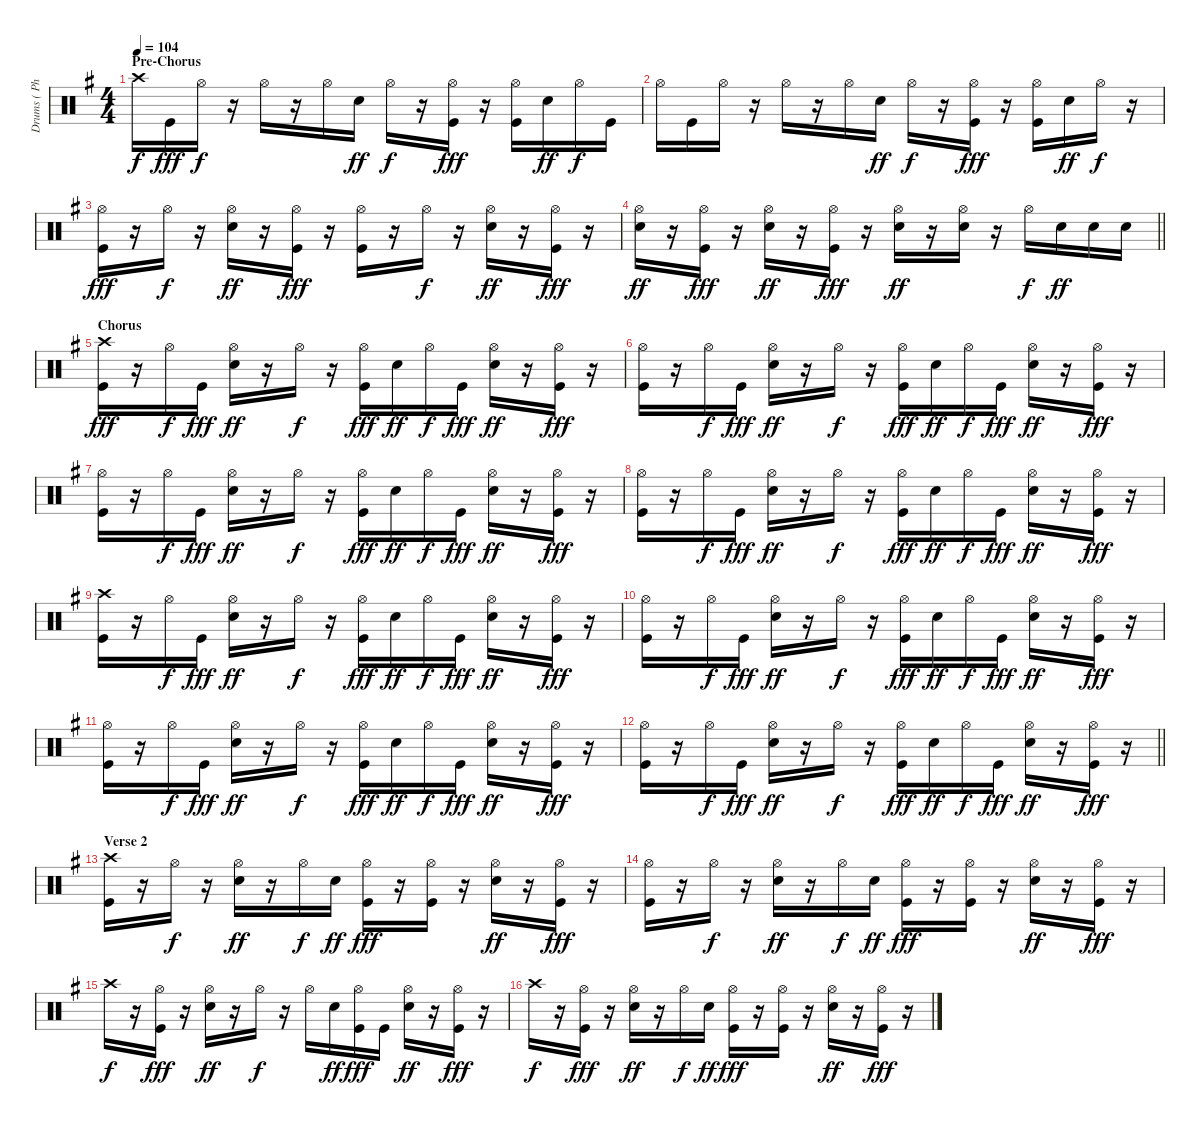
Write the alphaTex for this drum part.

\track ("Drums ( Phillip Selway )" "Drums ( Ph") {instrument percussion}
\staff {score}
\articulation defaults
\ts (4 4)
\section ("" "Pre-Chorus")
\tempo 104
\clef neutral
\ks eminor "Crash high (hit)".16{dy f} "Kick (hit)".16{dy fff} "Hi-Hat (open)".16{dy f}
r.16 "Hi-Hat (open)".16 r.16 "Hi-Hat (open)".16 "Electric Snare (hit)".16{dy ff} "Hi-Hat (open)".16{dy f} r.16 ("Hi-Hat (open)" "Kick (hit)").16{dy fff} r.16 ("Hi-Hat (open)" "Kick (hit)").16 "Electric Snare (hit)".16{dy ff} "Hi-Hat (open)".16{dy f} "Kick (hit)".16 |
"Hi-Hat (open)".16 "Kick (hit)".16 "Hi-Hat (open)".16 r.16 "Hi-Hat (open)".16 r.16 "Hi-Hat (open)".16 "Electric Snare (hit)".16{dy ff} "Hi-Hat (open)".16{dy f} r.16 ("Hi-Hat (open)" "Kick (hit)").16{dy fff} r.16 ("Hi-Hat (open)" "Kick (hit)").16 "Electric Snare (hit)".16{dy ff} "Hi-Hat (open)".16{dy f} r.16 |
("Hi-Hat (open)" "Kick (hit)").16{dy fff} r.16 "Hi-Hat (open)".16{dy f} r.16 ("Hi-Hat (open)" "Electric Snare (hit)").16{dy ff} r.16 ("Hi-Hat (open)" "Kick (hit)").16{dy fff} r.16 ("Hi-Hat (open)" "Kick (hit)").16 r.16 "Hi-Hat (open)".16{dy f} r.16 ("Hi-Hat (open)" "Electric Snare (hit)").16{dy ff} r.16 ("Hi-Hat (open)" "Kick (hit)").16{dy fff} r.16 |
\barLineRight lightlight
("Hi-Hat (open)" "Electric Snare (hit)").16{dy ff} r.16 ("Hi-Hat (open)" "Kick (hit)").16{dy fff} r.16 ("Hi-Hat (open)" "Electric Snare (hit)").16{dy ff} r.16 ("Hi-Hat (open)" "Kick (hit)").16{dy fff} r.16 ("Hi-Hat (open)" "Electric Snare (hit)").16{dy ff} r.16 ("Hi-Hat (open)" "Electric Snare (hit)").16 r.16 "Hi-Hat (open)".16{dy f} "Electric Snare (hit)".16{dy ff} "Electric Snare (hit)".16 "Electric Snare (hit)".16 |
\section ("" "Chorus")
("Crash high (hit)" "Kick (hit)").16{dy fff} r.16 "Hi-Hat (open)".16{dy f} "Kick (hit)".16{dy fff} ("Hi-Hat (open)" "Electric Snare (hit)").16{dy ff} r.16 "Hi-Hat (open)".16{dy f} r.16 ("Hi-Hat (open)" "Kick (hit)").16{dy fff} "Electric Snare (hit)".16{dy ff} "Hi-Hat (open)".16{dy f} "Kick (hit)".16{dy fff} ("Hi-Hat (open)" "Electric Snare (hit)").16{dy ff} r.16 ("Hi-Hat (open)" "Kick (hit)").16{dy fff} r.16 |
("Hi-Hat (open)" "Kick (hit)").16 r.16 "Hi-Hat (open)".16{dy f} "Kick (hit)".16{dy fff} ("Hi-Hat (open)" "Electric Snare (hit)").16{dy ff} r.16 "Hi-Hat (open)".16{dy f} r.16 ("Hi-Hat (open)" "Kick (hit)").16{dy fff} "Electric Snare (hit)".16{dy ff} "Hi-Hat (open)".16{dy f} "Kick (hit)".16{dy fff} ("Hi-Hat (open)" "Electric Snare (hit)").16{dy ff} r.16 ("Hi-Hat (open)" "Kick (hit)").16{dy fff} r.16 |
("Hi-Hat (open)" "Kick (hit)").16 r.16 "Hi-Hat (open)".16{dy f} "Kick (hit)".16{dy fff} ("Hi-Hat (open)" "Electric Snare (hit)").16{dy ff} r.16 "Hi-Hat (open)".16{dy f} r.16 ("Hi-Hat (open)" "Kick (hit)").16{dy fff} "Electric Snare (hit)".16{dy ff} "Hi-Hat (open)".16{dy f} "Kick (hit)".16{dy fff} ("Hi-Hat (open)" "Electric Snare (hit)").16{dy ff} r.16 ("Hi-Hat (open)" "Kick (hit)").16{dy fff} r.16 |
("Hi-Hat (open)" "Kick (hit)").16 r.16 "Hi-Hat (open)".16{dy f} "Kick (hit)".16{dy fff} ("Hi-Hat (open)" "Electric Snare (hit)").16{dy ff} r.16 "Hi-Hat (open)".16{dy f} r.16 ("Hi-Hat (open)" "Kick (hit)").16{dy fff} "Electric Snare (hit)".16{dy ff} "Hi-Hat (open)".16{dy f} "Kick (hit)".16{dy fff} ("Hi-Hat (open)" "Electric Snare (hit)").16{dy ff} r.16 ("Hi-Hat (open)" "Kick (hit)").16{dy fff} r.16 |
("Crash high (hit)" "Kick (hit)").16 r.16 "Hi-Hat (open)".16{dy f} "Kick (hit)".16{dy fff} ("Hi-Hat (open)" "Electric Snare (hit)").16{dy ff} r.16 "Hi-Hat (open)".16{dy f} r.16 ("Hi-Hat (open)" "Kick (hit)").16{dy fff} "Electric Snare (hit)".16{dy ff} "Hi-Hat (open)".16{dy f} "Kick (hit)".16{dy fff} ("Hi-Hat (open)" "Electric Snare (hit)").16{dy ff} r.16 ("Hi-Hat (open)" "Kick (hit)").16{dy fff} r.16 |
("Hi-Hat (open)" "Kick (hit)").16 r.16 "Hi-Hat (open)".16{dy f} "Kick (hit)".16{dy fff} ("Hi-Hat (open)" "Electric Snare (hit)").16{dy ff} r.16 "Hi-Hat (open)".16{dy f} r.16 ("Hi-Hat (open)" "Kick (hit)").16{dy fff} "Electric Snare (hit)".16{dy ff} "Hi-Hat (open)".16{dy f} "Kick (hit)".16{dy fff} ("Hi-Hat (open)" "Electric Snare (hit)").16{dy ff} r.16 ("Hi-Hat (open)" "Kick (hit)").16{dy fff} r.16 |
("Hi-Hat (open)" "Kick (hit)").16 r.16 "Hi-Hat (open)".16{dy f} "Kick (hit)".16{dy fff} ("Hi-Hat (open)" "Electric Snare (hit)").16{dy ff} r.16 "Hi-Hat (open)".16{dy f} r.16 ("Hi-Hat (open)" "Kick (hit)").16{dy fff} "Electric Snare (hit)".16{dy ff} "Hi-Hat (open)".16{dy f} "Kick (hit)".16{dy fff} ("Hi-Hat (open)" "Electric Snare (hit)").16{dy ff} r.16 ("Hi-Hat (open)" "Kick (hit)").16{dy fff} r.16 |
\barLineRight lightlight
("Hi-Hat (open)" "Kick (hit)").16 r.16 "Hi-Hat (open)".16{dy f} "Kick (hit)".16{dy fff} ("Hi-Hat (open)" "Electric Snare (hit)").16{dy ff} r.16 "Hi-Hat (open)".16{dy f} r.16 ("Hi-Hat (open)" "Kick (hit)").16{dy fff} "Electric Snare (hit)".16{dy ff} "Hi-Hat (open)".16{dy f} "Kick (hit)".16{dy fff} ("Hi-Hat (open)" "Electric Snare (hit)").16{dy ff} r.16 ("Hi-Hat (open)" "Kick (hit)").16{dy fff} r.16 |
\section ("" "Verse 2")
("Crash high (hit)" "Kick (hit)").16 r.16 "Hi-Hat (open)".16{dy f} r.16 ("Hi-Hat (open)" "Electric Snare (hit)").16{dy ff} r.16 "Hi-Hat (open)".16{dy f} "Electric Snare (hit)".16{dy ff} ("Hi-Hat (open)" "Kick (hit)").16{dy fff} r.16 ("Hi-Hat (open)" "Kick (hit)").16 r.16 ("Hi-Hat (open)" "Electric Snare (hit)").16{dy ff} r.16 ("Hi-Hat (open)" "Kick (hit)").16{dy fff} r.16 |
("Hi-Hat (open)" "Kick (hit)").16 r.16 "Hi-Hat (open)".16{dy f} r.16 ("Hi-Hat (open)" "Electric Snare (hit)").16{dy ff} r.16 "Hi-Hat (open)".16{dy f} "Electric Snare (hit)".16{dy ff} ("Hi-Hat (open)" "Kick (hit)").16{dy fff} r.16 ("Hi-Hat (open)" "Kick (hit)").16 r.16 ("Hi-Hat (open)" "Electric Snare (hit)").16{dy ff} r.16 ("Hi-Hat (open)" "Kick (hit)").16{dy fff} r.16 |
"Crash high (hit)".16{dy f} r.16 ("Hi-Hat (open)" "Kick (hit)").16{dy fff} r.16 ("Hi-Hat (open)" "Electric Snare (hit)").16{dy ff} r.16 "Hi-Hat (open)".16{dy f} r.16 "Hi-Hat (open)".16 "Electric Snare (hit)".16{dy ff} ("Hi-Hat (open)" "Kick (hit)").16{dy fff} "Kick (hit)".16 ("Hi-Hat (open)" "Electric Snare (hit)").16{dy ff} r.16 ("Hi-Hat (open)" "Kick (hit)").16{dy fff} r.16 |
"Crash high (hit)".16{dy f} r.16 ("Hi-Hat (open)" "Kick (hit)").16{dy fff} r.16 ("Hi-Hat (open)" "Electric Snare (hit)").16{dy ff} r.16 "Hi-Hat (open)".16{dy f} "Electric Snare (hit)".16{dy ff} ("Hi-Hat (open)" "Kick (hit)").16{dy fff} r.16 ("Hi-Hat (open)" "Kick (hit)").16 r.16 ("Hi-Hat (open)" "Electric Snare (hit)").16{dy ff} r.16 ("Hi-Hat (open)" "Kick (hit)").16{dy fff} r.16
